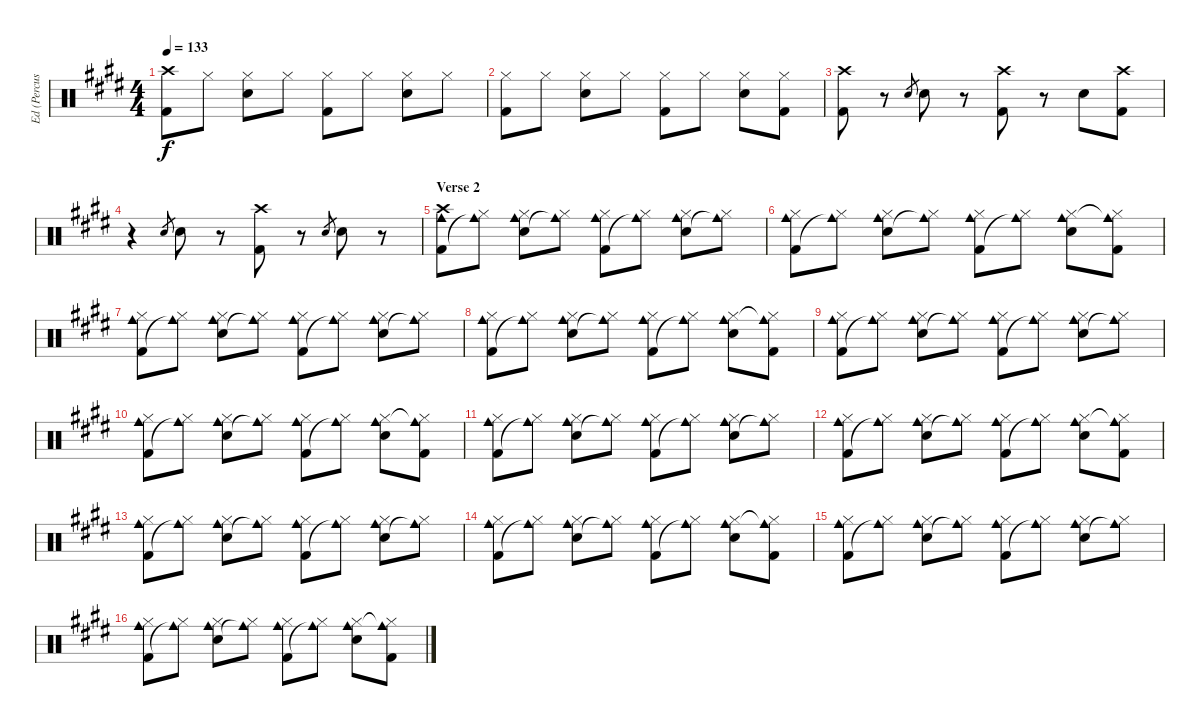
\track ("Ed (Percussion/Drums)" "Ed (Percus") {instrument percussion}
\staff {score}
\articulation defaults
\ts (4 4)
\tempo 133
\clef neutral
\ks e
("Crash high (hit)" "Kick (hit) 2").8{dy f} "Hi-Hat (closed)".8 ("Hi-Hat (closed)" "Snare (hit) 2").8 "Hi-Hat (closed)".8 ("Hi-Hat (closed)" "Kick (hit) 2").8 "Hi-Hat (closed)".8 ("Hi-Hat (closed)" "Snare (hit) 2").8 "Hi-Hat (closed)".8 |
("Hi-Hat (closed)" "Kick (hit) 2").8 "Hi-Hat (closed)".8 ("Hi-Hat (closed)" "Snare (hit) 2").8 "Hi-Hat (closed)".8 ("Hi-Hat (closed)" "Kick (hit) 2").8 "Hi-Hat (closed)".8 ("Hi-Hat (closed)" "Snare (hit) 2").8 ("Hi-Hat (closed)" "Kick (hit) 2").8 |
("Crash high (hit)" "Kick (hit) 2").8 r.8 "Snare (hit) 2".8{gr} "Snare (hit) 2".8 r.8 ("Crash high (hit)" "Kick (hit) 2").8 r.8 "Snare (hit) 2".8 ("Crash high (hit)" "Kick (hit) 2").8 |
r.4 "Snare (hit) 2".8{gr} "Snare (hit) 2".8 r.8 ("Crash high (hit)" "Kick (hit) 2").8 r.8 "Snare (hit) 2".8{gr} "Snare (hit) 2".8 r.8 |
\section ("" "Verse 2")
("Crash high (hit)" "Kick (hit) 2" "Cowbell medium (hit)").8 ("Hi-Hat (closed)" "Cowbell medium (hit)"{t}).8 ("Hi-Hat (closed)" "Snare (hit) 2" "Cowbell medium (hit)").8 ("Hi-Hat (closed)" "Cowbell medium (hit)"{t}).8 ("Hi-Hat (closed)" "Kick (hit) 2" "Cowbell medium (hit)").8 ("Hi-Hat (closed)" "Cowbell medium (hit)"{t}).8 ("Hi-Hat (closed)" "Snare (hit) 2" "Cowbell medium (hit)").8 ("Hi-Hat (closed)" "Cowbell medium (hit)"{t}).8 |
("Hi-Hat (closed)" "Kick (hit) 2" "Cowbell medium (hit)").8 ("Hi-Hat (closed)" "Cowbell medium (hit)"{t}).8 ("Hi-Hat (closed)" "Snare (hit) 2" "Cowbell medium (hit)").8 ("Hi-Hat (closed)" "Cowbell medium (hit)"{t}).8 ("Hi-Hat (closed)" "Kick (hit) 2" "Cowbell medium (hit)").8 ("Hi-Hat (closed)" "Cowbell medium (hit)"{t}).8 ("Hi-Hat (closed)" "Snare (hit) 2" "Cowbell medium (hit)").8 ("Hi-Hat (closed)" "Kick (hit) 2" "Cowbell medium (hit)"{t}).8 |
("Hi-Hat (closed)" "Kick (hit) 2" "Cowbell medium (hit)").8 ("Hi-Hat (closed)" "Cowbell medium (hit)"{t}).8 ("Hi-Hat (closed)" "Snare (hit) 2" "Cowbell medium (hit)").8 ("Hi-Hat (closed)" "Cowbell medium (hit)"{t}).8 ("Hi-Hat (closed)" "Kick (hit) 2" "Cowbell medium (hit)").8 ("Hi-Hat (closed)" "Cowbell medium (hit)"{t}).8 ("Hi-Hat (closed)" "Snare (hit) 2" "Cowbell medium (hit)").8 ("Hi-Hat (closed)" "Cowbell medium (hit)"{t}).8 |
("Hi-Hat (closed)" "Kick (hit) 2" "Cowbell medium (hit)").8 ("Hi-Hat (closed)" "Cowbell medium (hit)"{t}).8 ("Hi-Hat (closed)" "Snare (hit) 2" "Cowbell medium (hit)").8 ("Hi-Hat (closed)" "Cowbell medium (hit)"{t}).8 ("Hi-Hat (closed)" "Kick (hit) 2" "Cowbell medium (hit)").8 ("Hi-Hat (closed)" "Cowbell medium (hit)"{t}).8 ("Hi-Hat (closed)" "Snare (hit) 2" "Cowbell medium (hit)").8 ("Hi-Hat (closed)" "Kick (hit) 2" "Cowbell medium (hit)"{t}).8 |
("Hi-Hat (closed)" "Kick (hit) 2" "Cowbell medium (hit)").8 ("Hi-Hat (closed)" "Cowbell medium (hit)"{t}).8 ("Hi-Hat (closed)" "Snare (hit) 2" "Cowbell medium (hit)").8 ("Hi-Hat (closed)" "Cowbell medium (hit)"{t}).8 ("Hi-Hat (closed)" "Kick (hit) 2" "Cowbell medium (hit)").8 ("Hi-Hat (closed)" "Cowbell medium (hit)"{t}).8 ("Hi-Hat (closed)" "Snare (hit) 2" "Cowbell medium (hit)").8 ("Hi-Hat (closed)" "Cowbell medium (hit)"{t}).8 |
("Hi-Hat (closed)" "Kick (hit) 2" "Cowbell medium (hit)").8 ("Hi-Hat (closed)" "Cowbell medium (hit)"{t}).8 ("Hi-Hat (closed)" "Snare (hit) 2" "Cowbell medium (hit)").8 ("Hi-Hat (closed)" "Cowbell medium (hit)"{t}).8 ("Hi-Hat (closed)" "Kick (hit) 2" "Cowbell medium (hit)").8 ("Hi-Hat (closed)" "Cowbell medium (hit)"{t}).8 ("Hi-Hat (closed)" "Snare (hit) 2" "Cowbell medium (hit)").8 ("Hi-Hat (closed)" "Kick (hit) 2" "Cowbell medium (hit)"{t}).8 |
("Hi-Hat (closed)" "Kick (hit) 2" "Cowbell medium (hit)").8 ("Hi-Hat (closed)" "Cowbell medium (hit)"{t}).8 ("Hi-Hat (closed)" "Snare (hit) 2" "Cowbell medium (hit)").8 ("Hi-Hat (closed)" "Cowbell medium (hit)"{t}).8 ("Hi-Hat (closed)" "Kick (hit) 2" "Cowbell medium (hit)").8 ("Hi-Hat (closed)" "Cowbell medium (hit)"{t}).8 ("Hi-Hat (closed)" "Snare (hit) 2" "Cowbell medium (hit)").8 ("Hi-Hat (closed)" "Cowbell medium (hit)"{t}).8 |
("Hi-Hat (closed)" "Kick (hit) 2" "Cowbell medium (hit)").8 ("Hi-Hat (closed)" "Cowbell medium (hit)"{t}).8 ("Hi-Hat (closed)" "Snare (hit) 2" "Cowbell medium (hit)").8 ("Hi-Hat (closed)" "Cowbell medium (hit)"{t}).8 ("Hi-Hat (closed)" "Kick (hit) 2" "Cowbell medium (hit)").8 ("Hi-Hat (closed)" "Cowbell medium (hit)"{t}).8 ("Hi-Hat (closed)" "Snare (hit) 2" "Cowbell medium (hit)").8 ("Hi-Hat (closed)" "Kick (hit) 2" "Cowbell medium (hit)"{t}).8 |
("Hi-Hat (closed)" "Kick (hit) 2" "Cowbell medium (hit)").8 ("Hi-Hat (closed)" "Cowbell medium (hit)"{t}).8 ("Hi-Hat (closed)" "Snare (hit) 2" "Cowbell medium (hit)").8 ("Hi-Hat (closed)" "Cowbell medium (hit)"{t}).8 ("Hi-Hat (closed)" "Kick (hit) 2" "Cowbell medium (hit)").8 ("Hi-Hat (closed)" "Cowbell medium (hit)"{t}).8 ("Hi-Hat (closed)" "Snare (hit) 2" "Cowbell medium (hit)").8 ("Hi-Hat (closed)" "Cowbell medium (hit)"{t}).8 |
("Hi-Hat (closed)" "Kick (hit) 2" "Cowbell medium (hit)").8 ("Hi-Hat (closed)" "Cowbell medium (hit)"{t}).8 ("Hi-Hat (closed)" "Snare (hit) 2" "Cowbell medium (hit)").8 ("Hi-Hat (closed)" "Cowbell medium (hit)"{t}).8 ("Hi-Hat (closed)" "Kick (hit) 2" "Cowbell medium (hit)").8 ("Hi-Hat (closed)" "Cowbell medium (hit)"{t}).8 ("Hi-Hat (closed)" "Snare (hit) 2" "Cowbell medium (hit)").8 ("Hi-Hat (closed)" "Kick (hit) 2" "Cowbell medium (hit)"{t}).8 |
("Hi-Hat (closed)" "Kick (hit) 2" "Cowbell medium (hit)").8 ("Hi-Hat (closed)" "Cowbell medium (hit)"{t}).8 ("Hi-Hat (closed)" "Snare (hit) 2" "Cowbell medium (hit)").8 ("Hi-Hat (closed)" "Cowbell medium (hit)"{t}).8 ("Hi-Hat (closed)" "Kick (hit) 2" "Cowbell medium (hit)").8 ("Hi-Hat (closed)" "Cowbell medium (hit)"{t}).8 ("Hi-Hat (closed)" "Snare (hit) 2" "Cowbell medium (hit)").8 ("Hi-Hat (closed)" "Cowbell medium (hit)"{t}).8 |
("Hi-Hat (closed)" "Kick (hit) 2" "Cowbell medium (hit)").8 ("Hi-Hat (closed)" "Cowbell medium (hit)"{t}).8 ("Hi-Hat (closed)" "Snare (hit) 2" "Cowbell medium (hit)").8 ("Hi-Hat (closed)" "Cowbell medium (hit)"{t}).8 ("Hi-Hat (closed)" "Kick (hit) 2" "Cowbell medium (hit)").8 ("Hi-Hat (closed)" "Cowbell medium (hit)"{t}).8 ("Hi-Hat (closed)" "Snare (hit) 2" "Cowbell medium (hit)").8 ("Hi-Hat (closed)" "Kick (hit) 2" "Cowbell medium (hit)"{t}).8
